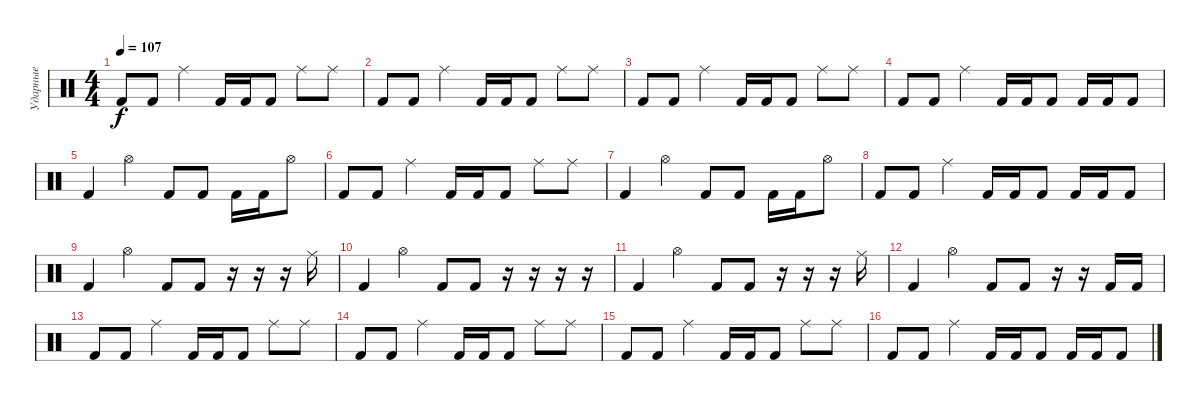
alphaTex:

\track ("Ударные" "Ударные") {instrument percussion}
\staff {score}
\articulation defaults
\ts (4 4)
\tempo 107
\clef neutral
\ks c "Kick (hit) 2".8{dy f} "Kick (hit) 2".8 "Ride (middle)".4 "Kick (hit) 2".16 "Kick (hit) 2".16 "Kick (hit) 2".8 "Ride (middle)".8 "Ride (middle)".8
|
"Kick (hit) 2".8 "Kick (hit) 2".8 "Ride (middle)".4 "Kick (hit) 2".16 "Kick (hit) 2".16 "Kick (hit) 2".8 "Ride (middle)".8 "Ride (middle)".8 |
"Kick (hit) 2".8 "Kick (hit) 2".8 "Ride (middle)".4 "Kick (hit) 2".16 "Kick (hit) 2".16 "Kick (hit) 2".8 "Ride (middle)".8 "Ride (middle)".8 |
"Kick (hit) 2".8 "Kick (hit) 2".8 "Ride (middle)".4 "Kick (hit) 2".16 "Kick (hit) 2".16 "Kick (hit) 2".8 "Kick (hit) 2".16 "Kick (hit) 2".16 "Kick (hit) 2".8 |
"Kick (hit) 2".4 "Hi-Hat (open)".4 "Kick (hit) 2".8 "Kick (hit) 2".8 "Kick (hit) 2".16 "Kick (hit) 2".16 "Hi-Hat (open)".8 |
"Kick (hit) 2".8 "Kick (hit) 2".8 "Ride (middle)".4 "Kick (hit) 2".16 "Kick (hit) 2".16 "Kick (hit) 2".8 "Ride (middle)".8 "Ride (middle)".8 |
"Kick (hit) 2".4 "Hi-Hat (open)".4 "Kick (hit) 2".8 "Kick (hit) 2".8 "Kick (hit) 2".16 "Kick (hit) 2".16 "Hi-Hat (open)".8 |
"Kick (hit) 2".8 "Kick (hit) 2".8 "Ride (middle)".4 "Kick (hit) 2".16 "Kick (hit) 2".16 "Kick (hit) 2".8 "Kick (hit) 2".16 "Kick (hit) 2".16 "Kick (hit) 2".8 |
"Kick (hit) 2".4 "Hi-Hat (open)".4 "Kick (hit) 2".8 "Kick (hit) 2".8 r.16 r.16 r.16 "Ride (middle)".16 |
"Kick (hit) 2".4 "Hi-Hat (open)".4 "Kick (hit) 2".8 "Kick (hit) 2".8 r.16 r.16 r.16 r.16 |
"Kick (hit) 2".4 "Hi-Hat (open)".4 "Kick (hit) 2".8 "Kick (hit) 2".8 r.16 r.16 r.16 "Ride (middle)".16 |
"Kick (hit) 2".4 "Hi-Hat (open)".4 "Kick (hit) 2".8 "Kick (hit) 2".8 r.16 r.16 "Kick (hit) 2".16 "Kick (hit) 2".16 |
"Kick (hit) 2".8 "Kick (hit) 2".8 "Ride (middle)".4 "Kick (hit) 2".16 "Kick (hit) 2".16 "Kick (hit) 2".8 "Ride (middle)".8 "Ride (middle)".8 |
"Kick (hit) 2".8 "Kick (hit) 2".8 "Ride (middle)".4 "Kick (hit) 2".16 "Kick (hit) 2".16 "Kick (hit) 2".8 "Ride (middle)".8 "Ride (middle)".8 |
"Kick (hit) 2".8 "Kick (hit) 2".8 "Ride (middle)".4 "Kick (hit) 2".16 "Kick (hit) 2".16 "Kick (hit) 2".8 "Ride (middle)".8 "Ride (middle)".8 |
"Kick (hit) 2".8 "Kick (hit) 2".8 "Ride (middle)".4 "Kick (hit) 2".16 "Kick (hit) 2".16 "Kick (hit) 2".8 "Kick (hit) 2".16 "Kick (hit) 2".16 "Kick (hit) 2".8
